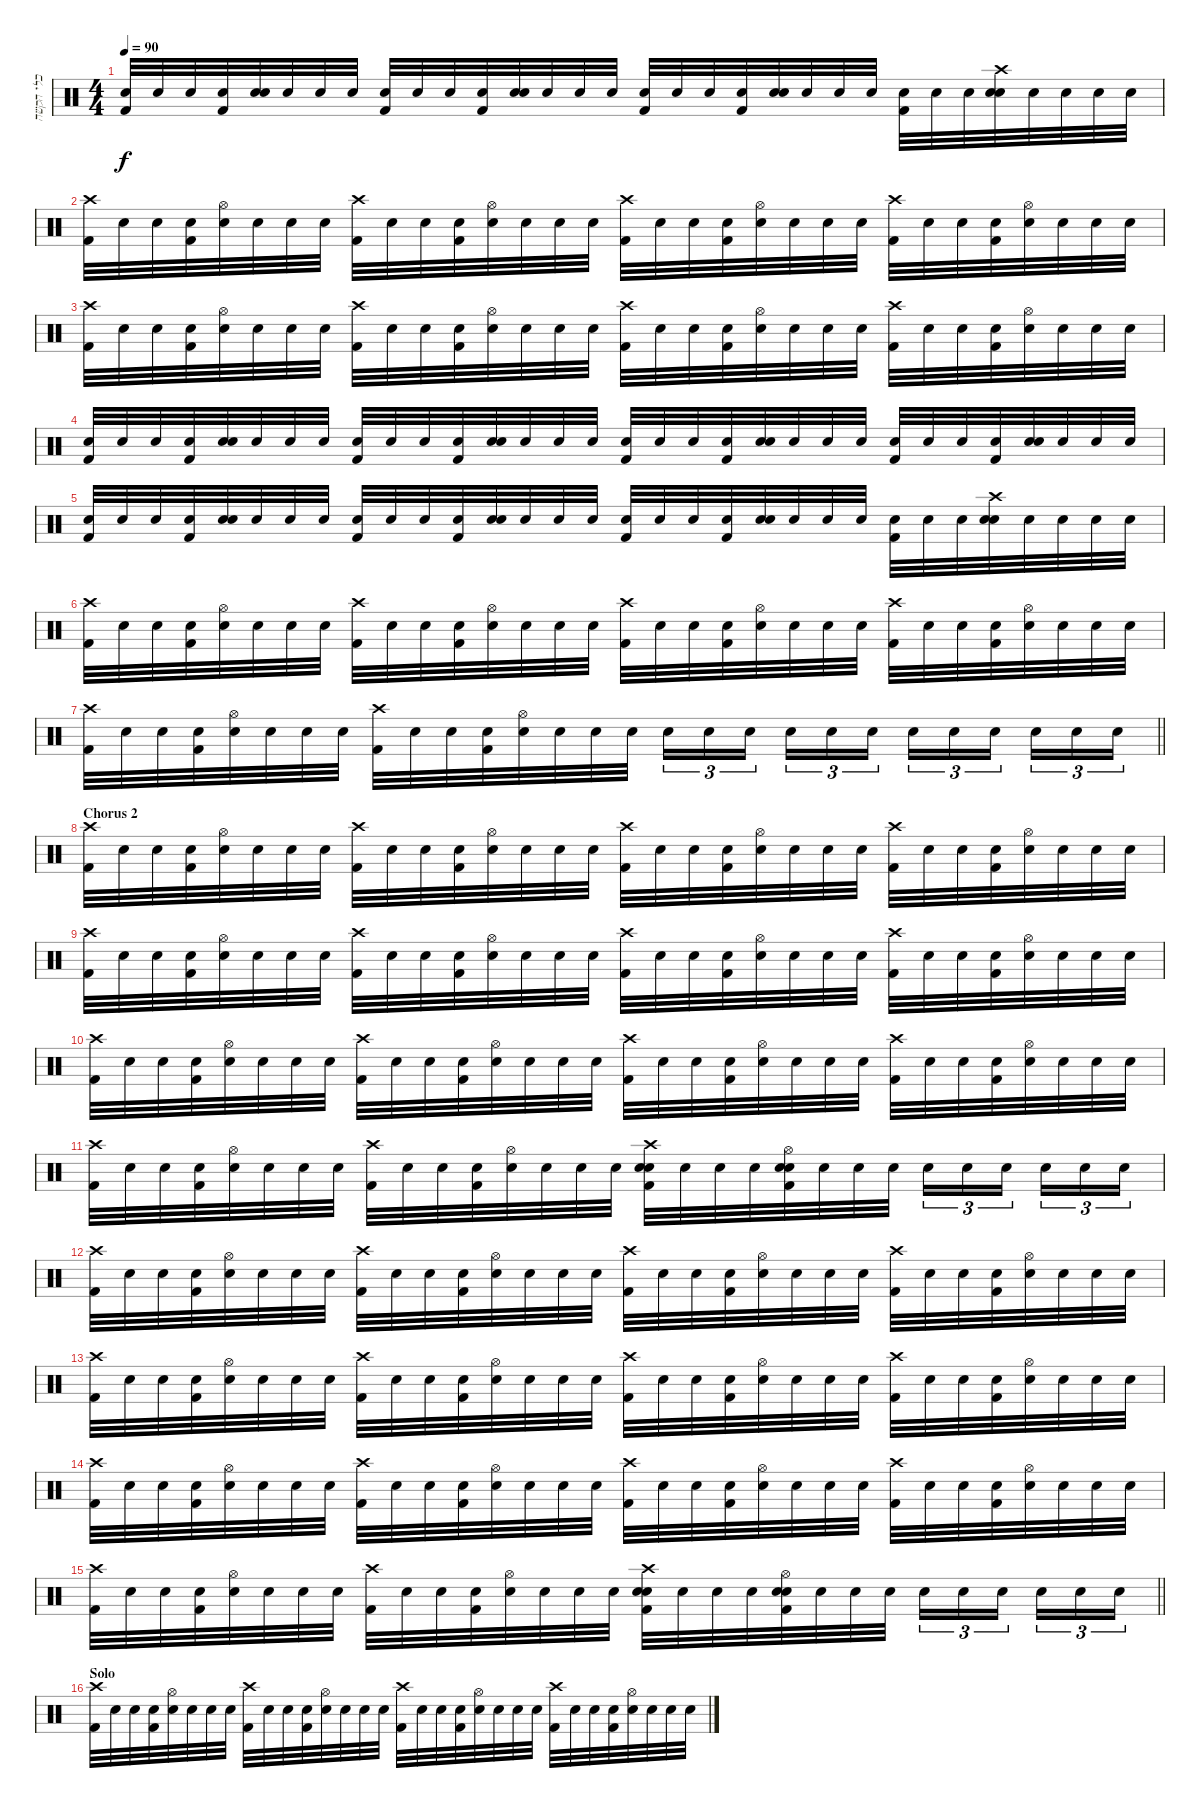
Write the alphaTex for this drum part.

\track ("כלי הקשה" "כלי הקשה") {instrument percussion bank 127}
\staff {score}
\articulation defaults
\ts (4 4)
\tempo 90
\clef neutral
\ks c
("Snare (hit)" "Kick (hit) 2").32{dy f} "Snare (hit)".32 "Snare (hit)".32 ("Snare (hit)" "Kick (hit) 2").32 ("Snare (hit)" "Snare (hit) 2").32 "Snare (hit)".32 "Snare (hit)".32 "Snare (hit)".32 ("Snare (hit)" "Kick (hit) 2").32 "Snare (hit)".32 "Snare (hit)".32 ("Snare (hit)" "Kick (hit) 2").32 ("Snare (hit)" "Snare (hit) 2").32 "Snare (hit)".32 "Snare (hit)".32 "Snare (hit)".32 ("Snare (hit)" "Kick (hit) 2").32 "Snare (hit)".32 "Snare (hit)".32 ("Snare (hit)" "Kick (hit) 2").32 ("Snare (hit)" "Snare (hit) 2").32 "Snare (hit)".32 "Snare (hit)".32 "Snare (hit)".32 ("Snare (hit)" "Kick (hit) 2").32 "Snare (hit)".32 "Snare (hit)".32 ("Crash high (hit)" "Snare (hit) 2" "Snare (hit) 2").32 "Snare (hit)".32 "Snare (hit)".32 "Snare (hit)".32 "Snare (hit)".32 |
("Crash high (hit)" "Kick (hit) 2").32 "Snare (hit)".32 "Snare (hit)".32 ("Snare (hit)" "Kick (hit) 2").32 ("Hi-Hat (open)" "Snare (hit) 2").32 "Snare (hit)".32 "Snare (hit)".32 "Snare (hit)".32 ("Crash high (hit)" "Kick (hit) 2").32 "Snare (hit)".32 "Snare (hit)".32 ("Snare (hit)" "Kick (hit) 2").32 ("Hi-Hat (open)" "Snare (hit) 2").32 "Snare (hit)".32 "Snare (hit)".32 "Snare (hit)".32 ("Crash high (hit)" "Kick (hit) 2").32 "Snare (hit)".32 "Snare (hit)".32 ("Snare (hit)" "Kick (hit) 2").32 ("Hi-Hat (open)" "Snare (hit) 2").32 "Snare (hit)".32 "Snare (hit)".32 "Snare (hit)".32 ("Crash high (hit)" "Kick (hit) 2").32 "Snare (hit)".32 "Snare (hit)".32 ("Snare (hit)" "Kick (hit) 2").32 ("Hi-Hat (open)" "Snare (hit) 2").32 "Snare (hit)".32 "Snare (hit)".32 "Snare (hit)".32 |
("Crash high (hit)" "Kick (hit) 2").32 "Snare (hit)".32 "Snare (hit)".32 ("Snare (hit)" "Kick (hit) 2").32 ("Hi-Hat (open)" "Snare (hit) 2").32 "Snare (hit)".32 "Snare (hit)".32 "Snare (hit)".32 ("Crash high (hit)" "Kick (hit) 2").32 "Snare (hit)".32 "Snare (hit)".32 ("Snare (hit)" "Kick (hit) 2").32 ("Hi-Hat (open)" "Snare (hit) 2").32 "Snare (hit)".32 "Snare (hit)".32 "Snare (hit)".32 ("Crash high (hit)" "Kick (hit) 2").32 "Snare (hit)".32 "Snare (hit)".32 ("Snare (hit)" "Kick (hit) 2").32 ("Hi-Hat (open)" "Snare (hit) 2").32 "Snare (hit)".32 "Snare (hit)".32 "Snare (hit)".32 ("Crash high (hit)" "Kick (hit) 2").32 "Snare (hit)".32 "Snare (hit)".32 ("Snare (hit)" "Kick (hit) 2").32 ("Hi-Hat (open)" "Snare (hit) 2").32 "Snare (hit)".32 "Snare (hit)".32 "Snare (hit)".32 |
("Snare (hit)" "Kick (hit) 2").32 "Snare (hit)".32 "Snare (hit)".32 ("Snare (hit)" "Kick (hit) 2").32 ("Snare (hit)" "Snare (hit) 2").32 "Snare (hit)".32 "Snare (hit)".32 "Snare (hit)".32 ("Snare (hit)" "Kick (hit) 2").32 "Snare (hit)".32 "Snare (hit)".32 ("Snare (hit)" "Kick (hit) 2").32 ("Snare (hit)" "Snare (hit) 2").32 "Snare (hit)".32 "Snare (hit)".32 "Snare (hit)".32 ("Snare (hit)" "Kick (hit) 2").32 "Snare (hit)".32 "Snare (hit)".32 ("Snare (hit)" "Kick (hit) 2").32 ("Snare (hit)" "Snare (hit) 2").32 "Snare (hit)".32 "Snare (hit)".32 "Snare (hit)".32 ("Snare (hit)" "Kick (hit) 2").32 "Snare (hit)".32 "Snare (hit)".32 ("Snare (hit)" "Kick (hit) 2").32 ("Snare (hit)" "Snare (hit) 2").32 "Snare (hit)".32 "Snare (hit)".32 "Snare (hit)".32 |
("Snare (hit)" "Kick (hit) 2").32 "Snare (hit)".32 "Snare (hit)".32 ("Snare (hit)" "Kick (hit) 2").32 ("Snare (hit)" "Snare (hit) 2").32 "Snare (hit)".32 "Snare (hit)".32 "Snare (hit)".32 ("Snare (hit)" "Kick (hit) 2").32 "Snare (hit)".32 "Snare (hit)".32 ("Snare (hit)" "Kick (hit) 2").32 ("Snare (hit)" "Snare (hit) 2").32 "Snare (hit)".32 "Snare (hit)".32 "Snare (hit)".32 ("Snare (hit)" "Kick (hit) 2").32 "Snare (hit)".32 "Snare (hit)".32 ("Snare (hit)" "Kick (hit) 2").32 ("Snare (hit)" "Snare (hit) 2").32 "Snare (hit)".32 "Snare (hit)".32 "Snare (hit)".32 ("Snare (hit)" "Kick (hit) 2").32 "Snare (hit)".32 "Snare (hit)".32 ("Crash high (hit)" "Snare (hit) 2" "Snare (hit) 2").32 "Snare (hit)".32 "Snare (hit)".32 "Snare (hit)".32 "Snare (hit)".32 |
("Crash high (hit)" "Kick (hit) 2").32 "Snare (hit)".32 "Snare (hit)".32 ("Snare (hit)" "Kick (hit) 2").32 ("Hi-Hat (open)" "Snare (hit) 2").32 "Snare (hit)".32 "Snare (hit)".32 "Snare (hit)".32 ("Crash high (hit)" "Kick (hit) 2").32 "Snare (hit)".32 "Snare (hit)".32 ("Snare (hit)" "Kick (hit) 2").32 ("Hi-Hat (open)" "Snare (hit) 2").32 "Snare (hit)".32 "Snare (hit)".32 "Snare (hit)".32 ("Crash high (hit)" "Kick (hit) 2").32 "Snare (hit)".32 "Snare (hit)".32 ("Snare (hit)" "Kick (hit) 2").32 ("Hi-Hat (open)" "Snare (hit) 2").32 "Snare (hit)".32 "Snare (hit)".32 "Snare (hit)".32 ("Crash high (hit)" "Kick (hit) 2").32 "Snare (hit)".32 "Snare (hit)".32 ("Snare (hit)" "Kick (hit) 2").32 ("Hi-Hat (open)" "Snare (hit) 2").32 "Snare (hit)".32 "Snare (hit)".32 "Snare (hit)".32 |
\barLineRight lightlight
("Crash high (hit)" "Kick (hit) 2").32 "Snare (hit)".32 "Snare (hit)".32 ("Snare (hit)" "Kick (hit) 2").32 ("Hi-Hat (open)" "Snare (hit) 2").32 "Snare (hit)".32 "Snare (hit)".32 "Snare (hit)".32 ("Crash high (hit)" "Kick (hit) 2").32 "Snare (hit)".32 "Snare (hit)".32 ("Snare (hit)" "Kick (hit) 2").32 ("Hi-Hat (open)" "Snare (hit) 2").32 "Snare (hit)".32 "Snare (hit)".32 "Snare (hit)".32 "Snare (hit) 2".16{tu (3 2)} "Snare (hit) 2".16{tu (3 2)} "Snare (hit) 2".16{tu (3 2) beam splitsecondary} "Snare (hit) 2".16{tu (3 2)} "Snare (hit) 2".16{tu (3 2)} "Snare (hit) 2".16{tu (3 2)} "Snare (hit) 2".16{tu (3 2)} "Snare (hit) 2".16{tu (3 2)} "Snare (hit) 2".16{tu (3 2) beam splitsecondary} "Snare (hit) 2".16{tu (3 2)} "Snare (hit) 2".16{tu (3 2)} "Snare (hit) 2".16{tu (3 2)} |
\section ("" "Chorus 2")
("Crash high (hit)" "Kick (hit) 2").32 "Snare (hit)".32 "Snare (hit)".32 ("Snare (hit)" "Kick (hit) 2").32 ("Hi-Hat (open)" "Snare (hit) 2").32 "Snare (hit)".32 "Snare (hit)".32 "Snare (hit)".32 ("Crash high (hit)" "Kick (hit) 2").32 "Snare (hit)".32 "Snare (hit)".32 ("Snare (hit)" "Kick (hit) 2").32 ("Hi-Hat (open)" "Snare (hit) 2").32 "Snare (hit)".32 "Snare (hit)".32 "Snare (hit)".32 ("Crash high (hit)" "Kick (hit) 2").32 "Snare (hit)".32 "Snare (hit)".32 ("Snare (hit)" "Kick (hit) 2").32 ("Hi-Hat (open)" "Snare (hit) 2").32 "Snare (hit)".32 "Snare (hit)".32 "Snare (hit)".32 ("Crash high (hit)" "Kick (hit) 2").32 "Snare (hit)".32 "Snare (hit)".32 ("Snare (hit)" "Kick (hit) 2").32 ("Hi-Hat (open)" "Snare (hit) 2").32 "Snare (hit)".32 "Snare (hit)".32 "Snare (hit)".32 |
("Crash high (hit)" "Kick (hit) 2").32 "Snare (hit)".32 "Snare (hit)".32 ("Snare (hit)" "Kick (hit) 2").32 ("Hi-Hat (open)" "Snare (hit) 2").32 "Snare (hit)".32 "Snare (hit)".32 "Snare (hit)".32 ("Crash high (hit)" "Kick (hit) 2").32 "Snare (hit)".32 "Snare (hit)".32 ("Snare (hit)" "Kick (hit) 2").32 ("Hi-Hat (open)" "Snare (hit) 2").32 "Snare (hit)".32 "Snare (hit)".32 "Snare (hit)".32 ("Crash high (hit)" "Kick (hit) 2").32 "Snare (hit)".32 "Snare (hit)".32 ("Snare (hit)" "Kick (hit) 2").32 ("Hi-Hat (open)" "Snare (hit) 2").32 "Snare (hit)".32 "Snare (hit)".32 "Snare (hit)".32 ("Crash high (hit)" "Kick (hit) 2").32 "Snare (hit)".32 "Snare (hit)".32 ("Snare (hit)" "Kick (hit) 2").32 ("Hi-Hat (open)" "Snare (hit) 2").32 "Snare (hit)".32 "Snare (hit)".32 "Snare (hit)".32 |
("Crash high (hit)" "Kick (hit) 2").32 "Snare (hit)".32 "Snare (hit)".32 ("Snare (hit)" "Kick (hit) 2").32 ("Hi-Hat (open)" "Snare (hit) 2").32 "Snare (hit)".32 "Snare (hit)".32 "Snare (hit)".32 ("Crash high (hit)" "Kick (hit) 2").32 "Snare (hit)".32 "Snare (hit)".32 ("Snare (hit)" "Kick (hit) 2").32 ("Hi-Hat (open)" "Snare (hit) 2").32 "Snare (hit)".32 "Snare (hit)".32 "Snare (hit)".32 ("Crash high (hit)" "Kick (hit) 2").32 "Snare (hit)".32 "Snare (hit)".32 ("Snare (hit)" "Kick (hit) 2").32 ("Hi-Hat (open)" "Snare (hit) 2").32 "Snare (hit)".32 "Snare (hit)".32 "Snare (hit)".32 ("Crash high (hit)" "Kick (hit) 2").32 "Snare (hit)".32 "Snare (hit)".32 ("Snare (hit)" "Kick (hit) 2").32 ("Hi-Hat (open)" "Snare (hit) 2").32 "Snare (hit)".32 "Snare (hit)".32 "Snare (hit)".32 |
("Crash high (hit)" "Kick (hit) 2").32 "Snare (hit)".32 "Snare (hit)".32 ("Snare (hit)" "Kick (hit) 2").32 ("Hi-Hat (open)" "Snare (hit) 2").32 "Snare (hit)".32 "Snare (hit)".32 "Snare (hit)".32 ("Crash high (hit)" "Kick (hit) 2").32 "Snare (hit)".32 "Snare (hit)".32 ("Snare (hit)" "Kick (hit) 2").32 ("Hi-Hat (open)" "Snare (hit) 2").32 "Snare (hit)".32 "Snare (hit)".32 "Snare (hit)".32 ("Crash high (hit)" "Snare (hit) 2" "Snare (hit) 2" "Kick (hit) 2").32 "Snare (hit)".32 "Snare (hit)".32 "Snare (hit)".32 ("Hi-Hat (open)" "Snare (hit) 2" "Snare (hit) 2" "Kick (hit) 2").32 "Snare (hit)".32 "Snare (hit)".32 "Snare (hit)".32 "Snare (hit) 2".16{tu (3 2)} "Snare (hit) 2".16{tu (3 2)} "Snare (hit) 2".16{tu (3 2) beam splitsecondary} "Snare (hit) 2".16{tu (3 2)} "Snare (hit) 2".16{tu (3 2)} "Snare (hit) 2".16{tu (3 2)} |
("Crash high (hit)" "Kick (hit) 2").32 "Snare (hit)".32 "Snare (hit)".32 ("Snare (hit)" "Kick (hit) 2").32 ("Hi-Hat (open)" "Snare (hit) 2").32 "Snare (hit)".32 "Snare (hit)".32 "Snare (hit)".32 ("Crash high (hit)" "Kick (hit) 2").32 "Snare (hit)".32 "Snare (hit)".32 ("Snare (hit)" "Kick (hit) 2").32 ("Hi-Hat (open)" "Snare (hit) 2").32 "Snare (hit)".32 "Snare (hit)".32 "Snare (hit)".32 ("Crash high (hit)" "Kick (hit) 2").32 "Snare (hit)".32 "Snare (hit)".32 ("Snare (hit)" "Kick (hit) 2").32 ("Hi-Hat (open)" "Snare (hit) 2").32 "Snare (hit)".32 "Snare (hit)".32 "Snare (hit)".32 ("Crash high (hit)" "Kick (hit) 2").32 "Snare (hit)".32 "Snare (hit)".32 ("Snare (hit)" "Kick (hit) 2").32 ("Hi-Hat (open)" "Snare (hit) 2").32 "Snare (hit)".32 "Snare (hit)".32 "Snare (hit)".32 |
("Crash high (hit)" "Kick (hit) 2").32 "Snare (hit)".32 "Snare (hit)".32 ("Snare (hit)" "Kick (hit) 2").32 ("Hi-Hat (open)" "Snare (hit) 2").32 "Snare (hit)".32 "Snare (hit)".32 "Snare (hit)".32 ("Crash high (hit)" "Kick (hit) 2").32 "Snare (hit)".32 "Snare (hit)".32 ("Snare (hit)" "Kick (hit) 2").32 ("Hi-Hat (open)" "Snare (hit) 2").32 "Snare (hit)".32 "Snare (hit)".32 "Snare (hit)".32 ("Crash high (hit)" "Kick (hit) 2").32 "Snare (hit)".32 "Snare (hit)".32 ("Snare (hit)" "Kick (hit) 2").32 ("Hi-Hat (open)" "Snare (hit) 2").32 "Snare (hit)".32 "Snare (hit)".32 "Snare (hit)".32 ("Crash high (hit)" "Kick (hit) 2").32 "Snare (hit)".32 "Snare (hit)".32 ("Snare (hit)" "Kick (hit) 2").32 ("Hi-Hat (open)" "Snare (hit) 2").32 "Snare (hit)".32 "Snare (hit)".32 "Snare (hit)".32 |
("Crash high (hit)" "Kick (hit) 2").32 "Snare (hit)".32 "Snare (hit)".32 ("Snare (hit)" "Kick (hit) 2").32 ("Hi-Hat (open)" "Snare (hit) 2").32 "Snare (hit)".32 "Snare (hit)".32 "Snare (hit)".32 ("Crash high (hit)" "Kick (hit) 2").32 "Snare (hit)".32 "Snare (hit)".32 ("Snare (hit)" "Kick (hit) 2").32 ("Hi-Hat (open)" "Snare (hit) 2").32 "Snare (hit)".32 "Snare (hit)".32 "Snare (hit)".32 ("Crash high (hit)" "Kick (hit) 2").32 "Snare (hit)".32 "Snare (hit)".32 ("Snare (hit)" "Kick (hit) 2").32 ("Hi-Hat (open)" "Snare (hit) 2").32 "Snare (hit)".32 "Snare (hit)".32 "Snare (hit)".32 ("Crash high (hit)" "Kick (hit) 2").32 "Snare (hit)".32 "Snare (hit)".32 ("Snare (hit)" "Kick (hit) 2").32 ("Hi-Hat (open)" "Snare (hit) 2").32 "Snare (hit)".32 "Snare (hit)".32 "Snare (hit)".32 |
\barLineRight lightlight
("Crash high (hit)" "Kick (hit) 2").32 "Snare (hit)".32 "Snare (hit)".32 ("Snare (hit)" "Kick (hit) 2").32 ("Hi-Hat (open)" "Snare (hit) 2").32 "Snare (hit)".32 "Snare (hit)".32 "Snare (hit)".32 ("Crash high (hit)" "Kick (hit) 2").32 "Snare (hit)".32 "Snare (hit)".32 ("Snare (hit)" "Kick (hit) 2").32 ("Hi-Hat (open)" "Snare (hit) 2").32 "Snare (hit)".32 "Snare (hit)".32 "Snare (hit)".32 ("Crash high (hit)" "Snare (hit) 2" "Snare (hit) 2" "Kick (hit) 2").32 "Snare (hit)".32 "Snare (hit)".32 "Snare (hit)".32 ("Hi-Hat (open)" "Snare (hit) 2" "Snare (hit) 2" "Kick (hit) 2").32 "Snare (hit)".32 "Snare (hit)".32 "Snare (hit)".32 "Snare (hit) 2".16{tu (3 2)} "Snare (hit) 2".16{tu (3 2)} "Snare (hit) 2".16{tu (3 2) beam splitsecondary} "Snare (hit) 2".16{tu (3 2)} "Snare (hit) 2".16{tu (3 2)} "Snare (hit) 2".16{tu (3 2)} |
\section ("" "Solo")
("Crash high (hit)" "Kick (hit) 2").32 "Snare (hit)".32 "Snare (hit)".32 ("Snare (hit)" "Kick (hit) 2").32 ("Hi-Hat (open)" "Snare (hit) 2").32 "Snare (hit)".32 "Snare (hit)".32 "Snare (hit)".32 ("Crash high (hit)" "Kick (hit) 2").32 "Snare (hit)".32 "Snare (hit)".32 ("Snare (hit)" "Kick (hit) 2").32 ("Hi-Hat (open)" "Snare (hit) 2").32 "Snare (hit)".32 "Snare (hit)".32 "Snare (hit)".32 ("Crash high (hit)" "Kick (hit) 2").32 "Snare (hit)".32 "Snare (hit)".32 ("Snare (hit)" "Kick (hit) 2").32 ("Hi-Hat (open)" "Snare (hit) 2").32 "Snare (hit)".32 "Snare (hit)".32 "Snare (hit)".32 ("Crash high (hit)" "Kick (hit) 2").32 "Snare (hit)".32 "Snare (hit)".32 ("Snare (hit)" "Kick (hit) 2").32 ("Hi-Hat (open)" "Snare (hit) 2").32 "Snare (hit)".32 "Snare (hit)".32 "Snare (hit)".32
